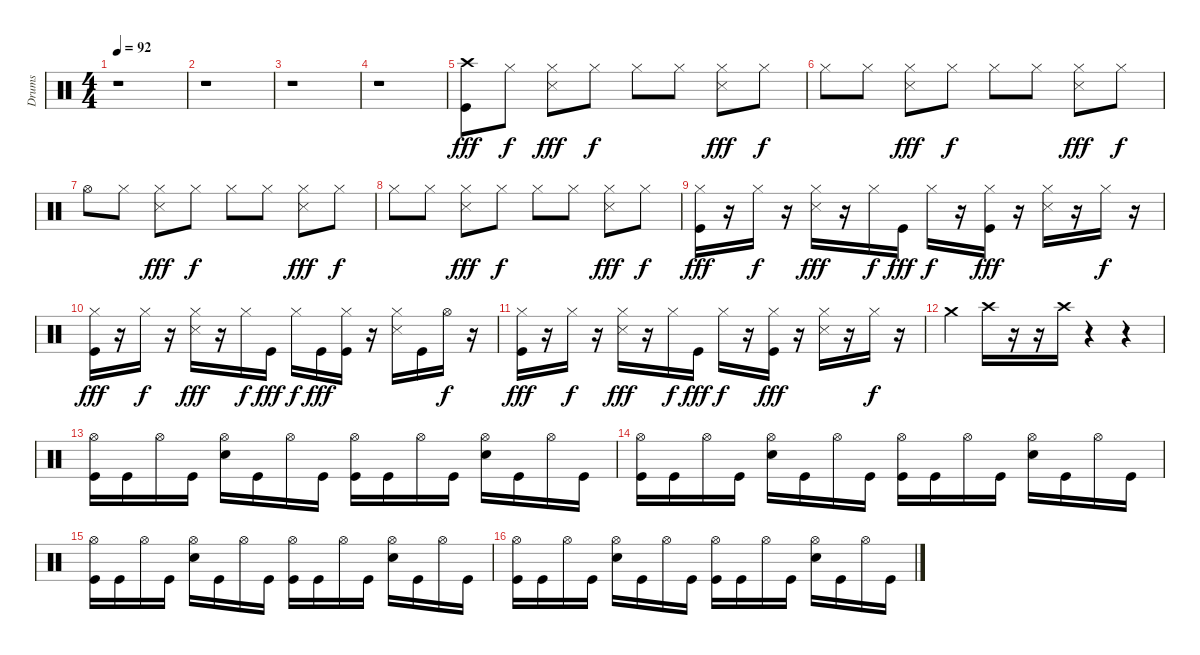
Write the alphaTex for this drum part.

\track ("Drums" "Drums") {instrument percussion}
\staff {score}
\articulation defaults
\ts (4 4)
\tempo 92
\clef neutral
\ks c
r.1{dy fff} |
r.1 |
r.1 |
r.1 |
("Crash high (hit)" "Kick (hit)").8 "Hi-Hat (closed)".8{dy f} ("Hi-Hat (closed)" "Snare (side stick) 3").8{dy fff} "Hi-Hat (closed)".8{dy f} "Hi-Hat (closed)".8 "Hi-Hat (closed)".8 ("Hi-Hat (closed)" "Snare (side stick) 3").8{dy fff} "Hi-Hat (closed)".8{dy f} |
"Hi-Hat (closed)".8 "Hi-Hat (closed)".8 ("Hi-Hat (closed)" "Snare (side stick) 3").8{dy fff} "Hi-Hat (closed)".8{dy f} "Hi-Hat (closed)".8 "Hi-Hat (closed)".8 ("Hi-Hat (closed)" "Snare (side stick) 3").8{dy fff} "Hi-Hat (closed)".8{dy f} |
"Hi-Hat (open)".8 "Hi-Hat (closed)".8 ("Hi-Hat (closed)" "Snare (side stick) 3").8{dy fff} "Hi-Hat (closed)".8{dy f} "Hi-Hat (closed)".8 "Hi-Hat (closed)".8 ("Hi-Hat (closed)" "Snare (side stick) 3").8{dy fff} "Hi-Hat (closed)".8{dy f} |
"Hi-Hat (closed)".8 "Hi-Hat (closed)".8 ("Hi-Hat (closed)" "Snare (side stick) 3").8{dy fff} "Hi-Hat (closed)".8{dy f} "Hi-Hat (closed)".8 "Hi-Hat (closed)".8 ("Hi-Hat (closed)" "Snare (side stick) 3").8{dy fff} "Hi-Hat (closed)".8{dy f} |
("Hi-Hat (closed)" "Kick (hit)").16{dy fff} r.16 "Hi-Hat (closed)".16{dy f} r.16 ("Hi-Hat (closed)" "Snare (side stick) 3").16{dy fff} r.16 "Hi-Hat (closed)".16{dy f} "Kick (hit)".16{dy fff} "Hi-Hat (closed)".16{dy f} r.16 ("Hi-Hat (closed)" "Kick (hit)").16{dy fff} r.16 ("Hi-Hat (closed)" "Snare (side stick) 3").16 r.16 "Hi-Hat (closed)".16{dy f} r.16 |
("Hi-Hat (closed)" "Kick (hit)").16{dy fff} r.16 "Hi-Hat (closed)".16{dy f} r.16 ("Hi-Hat (closed)" "Snare (side stick) 3").16{dy fff} r.16 "Hi-Hat (closed)".16{dy f} "Kick (hit)".16{dy fff} "Hi-Hat (closed)".16{dy f} "Kick (hit)".16{dy fff} ("Hi-Hat (closed)" "Kick (hit)").16 r.16 ("Hi-Hat (closed)" "Snare (side stick) 3").16 "Kick (hit)".16 "Hi-Hat (open)".16{dy f} r.16 |
("Hi-Hat (closed)" "Kick (hit)").16{dy fff} r.16 "Hi-Hat (closed)".16{dy f} r.16 ("Hi-Hat (closed)" "Snare (side stick) 3").16{dy fff} r.16 "Hi-Hat (closed)".16{dy f} "Kick (hit)".16{dy fff} "Hi-Hat (closed)".16{dy f} r.16 ("Hi-Hat (closed)" "Kick (hit)").16{dy fff} r.16 ("Hi-Hat (closed)" "Snare (side stick) 3").16 r.16 "Hi-Hat (closed)".16{dy f} r.16 |
"Crash medium (hit)".4 "Crash high (hit)".16 r.16 r.16 "Crash high (hit)".16 r.4 r.4 |
("Hi-Hat (open)" "Kick (hit)").16 "Kick (hit)".16 "Hi-Hat (open)".16 "Kick (hit)".16 ("Hi-Hat (open)" "Snare (hit) 2").16 "Kick (hit)".16 "Hi-Hat (open)".16 "Kick (hit)".16 ("Hi-Hat (open)" "Kick (hit)").16 "Kick (hit)".16 "Hi-Hat (open)".16 "Kick (hit)".16 ("Hi-Hat (open)" "Snare (hit) 2").16 "Kick (hit)".16 "Hi-Hat (open)".16 "Kick (hit)".16 |
("Hi-Hat (open)" "Kick (hit)").16 "Kick (hit)".16 "Hi-Hat (open)".16 "Kick (hit)".16 ("Hi-Hat (open)" "Snare (hit) 2").16 "Kick (hit)".16 "Hi-Hat (open)".16 "Kick (hit)".16 ("Hi-Hat (open)" "Kick (hit)").16 "Kick (hit)".16 "Hi-Hat (open)".16 "Kick (hit)".16 ("Hi-Hat (open)" "Snare (hit) 2").16 "Kick (hit)".16 "Hi-Hat (open)".16 "Kick (hit)".16 |
("Hi-Hat (open)" "Kick (hit)").16 "Kick (hit)".16 "Hi-Hat (open)".16 "Kick (hit)".16 ("Hi-Hat (open)" "Snare (hit) 2").16 "Kick (hit)".16 "Hi-Hat (open)".16 "Kick (hit)".16 ("Hi-Hat (open)" "Kick (hit)").16 "Kick (hit)".16 "Hi-Hat (open)".16 "Kick (hit)".16 ("Hi-Hat (open)" "Snare (hit) 2").16 "Kick (hit)".16 "Hi-Hat (open)".16 "Kick (hit)".16 |
("Hi-Hat (open)" "Kick (hit)").16 "Kick (hit)".16 "Hi-Hat (open)".16 "Kick (hit)".16 ("Hi-Hat (open)" "Snare (hit) 2").16 "Kick (hit)".16 "Hi-Hat (open)".16 "Kick (hit)".16 ("Hi-Hat (open)" "Kick (hit)").16 "Kick (hit)".16 "Hi-Hat (open)".16 "Kick (hit)".16 ("Hi-Hat (open)" "Snare (hit) 2").16 "Kick (hit)".16 "Hi-Hat (open)".16 "Kick (hit)".16
